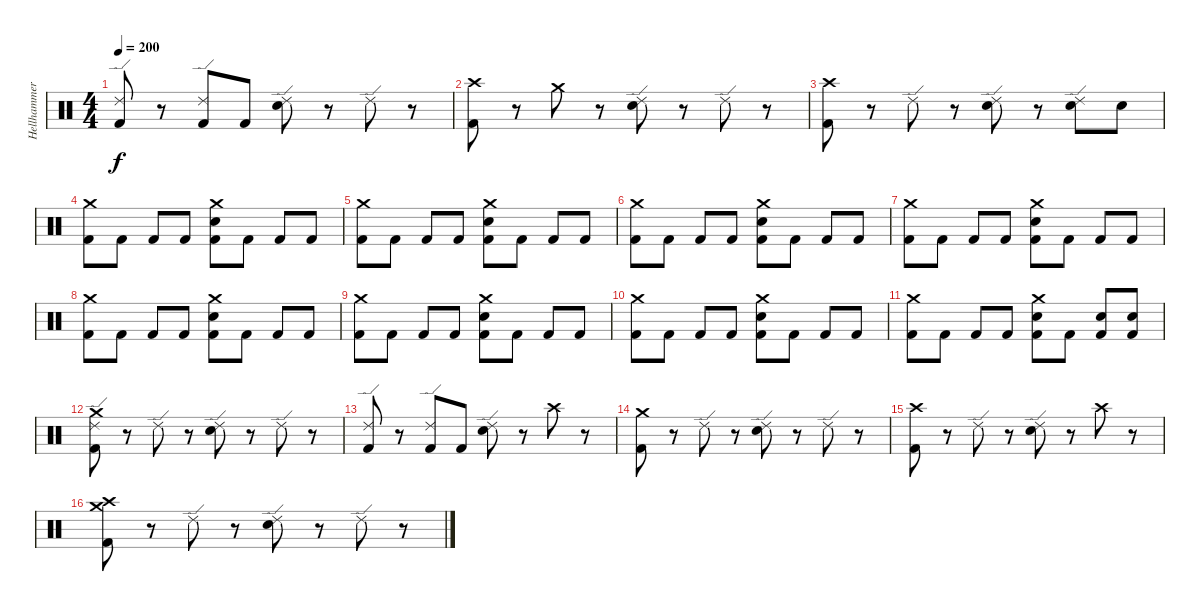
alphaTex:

\track ("Hellhammer" "Hellhammer") {instrument percussion}
\staff {score}
\articulation defaults
\ts (4 4)
\tempo 200
\clef neutral
\ks c
("Ride (edge) 2" "Kick (hit) 2").8{dy f} r.8 ("Ride (edge) 2" "Kick (hit) 2").8 "Kick (hit) 2".8 ("Ride (edge) 2" "Electric Snare (hit)").8 r.8 "Ride (edge) 2".8 r.8 |
("Crash high (hit)" "Kick (hit) 2").8 r.8 "Crash medium (hit)".8 r.8 ("Ride (edge) 2" "Electric Snare (hit)").8 r.8 "Ride (edge) 2".8 r.8 |
("Crash high (hit)" "Kick (hit) 2").8 r.8 "Ride (edge) 2".8 r.8 ("Ride (edge) 2" "Electric Snare (hit)").8 r.8 ("Ride (edge) 2" "Electric Snare (hit)").8 "Electric Snare (hit)".8 |
("Crash medium (hit)" "Kick (hit) 2").8 "Kick (hit) 2".8 "Kick (hit) 2".8 "Kick (hit) 2".8 ("Crash medium (hit)" "Electric Snare (hit)" "Kick (hit) 2").8 "Kick (hit) 2".8 "Kick (hit) 2".8 "Kick (hit) 2".8 |
("Crash medium (hit)" "Kick (hit) 2").8 "Kick (hit) 2".8 "Kick (hit) 2".8 "Kick (hit) 2".8 ("Crash medium (hit)" "Electric Snare (hit)" "Kick (hit) 2").8 "Kick (hit) 2".8 "Kick (hit) 2".8 "Kick (hit) 2".8 |
("Crash medium (hit)" "Kick (hit) 2").8 "Kick (hit) 2".8 "Kick (hit) 2".8 "Kick (hit) 2".8 ("Crash medium (hit)" "Electric Snare (hit)" "Kick (hit) 2").8 "Kick (hit) 2".8 "Kick (hit) 2".8 "Kick (hit) 2".8 |
("Crash medium (hit)" "Kick (hit) 2").8 "Kick (hit) 2".8 "Kick (hit) 2".8 "Kick (hit) 2".8 ("Crash medium (hit)" "Electric Snare (hit)" "Kick (hit) 2").8 "Kick (hit) 2".8 "Kick (hit) 2".8 "Kick (hit) 2".8 |
("Crash medium (hit)" "Kick (hit) 2").8 "Kick (hit) 2".8 "Kick (hit) 2".8 "Kick (hit) 2".8 ("Crash medium (hit)" "Electric Snare (hit)" "Kick (hit) 2").8 "Kick (hit) 2".8 "Kick (hit) 2".8 "Kick (hit) 2".8 |
("Crash medium (hit)" "Kick (hit) 2").8 "Kick (hit) 2".8 "Kick (hit) 2".8 "Kick (hit) 2".8 ("Crash medium (hit)" "Electric Snare (hit)" "Kick (hit) 2").8 "Kick (hit) 2".8 "Kick (hit) 2".8 "Kick (hit) 2".8 |
("Crash medium (hit)" "Kick (hit) 2").8 "Kick (hit) 2".8 "Kick (hit) 2".8 "Kick (hit) 2".8 ("Crash medium (hit)" "Electric Snare (hit)" "Kick (hit) 2").8 "Kick (hit) 2".8 "Kick (hit) 2".8 "Kick (hit) 2".8 |
("Crash medium (hit)" "Kick (hit) 2").8 "Kick (hit) 2".8 "Kick (hit) 2".8 "Kick (hit) 2".8 ("Crash medium (hit)" "Electric Snare (hit)" "Kick (hit) 2").8 "Kick (hit) 2".8 ("Electric Snare (hit)" "Kick (hit) 2").8 ("Electric Snare (hit)" "Kick (hit) 2").8 |
("Crash medium (hit)" "Ride (edge) 2" "Kick (hit) 2").8 r.8 "Ride (edge) 2".8 r.8 ("Ride (edge) 2" "Electric Snare (hit)").8 r.8 "Ride (edge) 2".8 r.8 |
("Ride (edge) 2" "Kick (hit) 2").8 r.8 ("Ride (edge) 2" "Kick (hit) 2").8 "Kick (hit) 2".8 ("Ride (edge) 2" "Electric Snare (hit)").8 r.8 "Crash high (hit)".8 r.8 |
("Crash medium (hit)" "Kick (hit) 2").8 r.8 "Ride (edge) 2".8 r.8 ("Ride (edge) 2" "Electric Snare (hit)").8 r.8 "Ride (edge) 2".8 r.8 |
("Crash high (hit)" "Kick (hit) 2").8 r.8 "Ride (edge) 2".8 r.8 ("Ride (edge) 2" "Electric Snare (hit)").8 r.8 "Crash high (hit)".8 r.8 |
("Crash medium (hit)" "Crash high (hit)" "Kick (hit) 2").8 r.8 "Ride (edge) 2".8 r.8 ("Ride (edge) 2" "Electric Snare (hit)").8 r.8 "Ride (edge) 2".8 r.8
